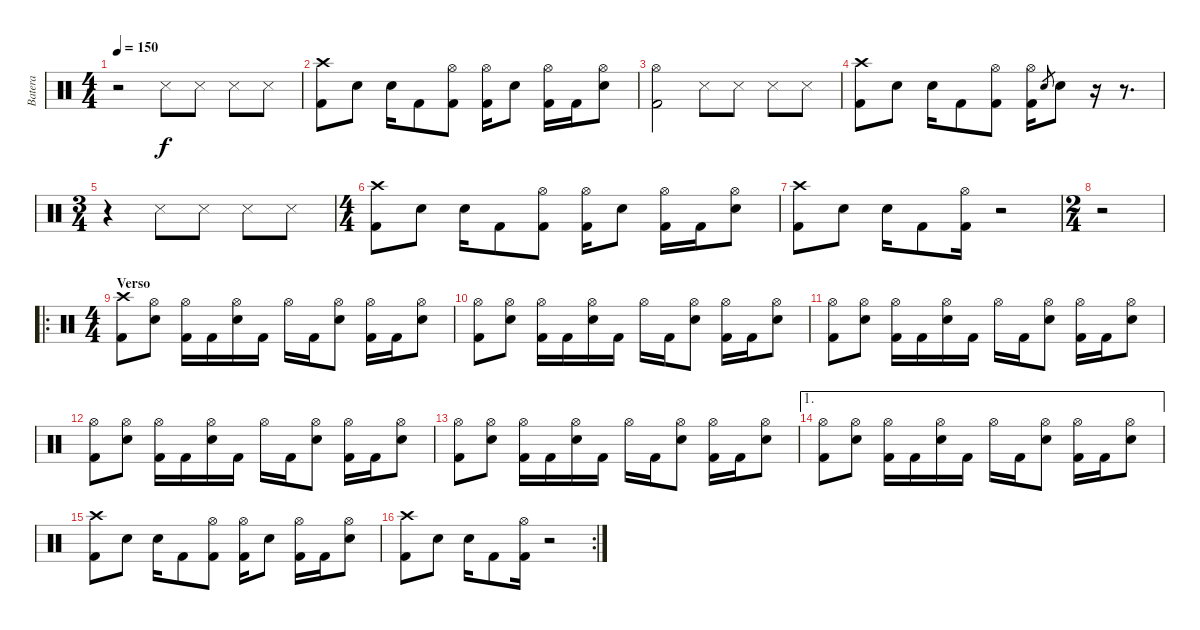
\track ("Batera" "Batera") {instrument percussion}
\staff {score}
\articulation defaults
\ts (4 4)
\tempo 150
\clef neutral
\ks c
r.2{dy f} "Snare (side stick) 3".8 "Snare (side stick) 3".8 "Snare (side stick) 3".8 "Snare (side stick) 3".8 |
("Crash high (hit)" "Kick (hit) 2").8 "Snare (hit) 2".8 "Snare (hit) 2".16 "Kick (hit) 2".8 ("Hi-Hat (open)" "Kick (hit) 2").8 ("Hi-Hat (open)" "Kick (hit) 2").16 "Snare (hit) 2".8 ("Hi-Hat (open)" "Kick (hit) 2").16 "Kick (hit) 2".16 ("Hi-Hat (open)" "Snare (hit) 2").8 |
("Hi-Hat (open)" "Kick (hit) 2").2 "Snare (side stick) 3".8 "Snare (side stick) 3".8 "Snare (side stick) 3".8 "Snare (side stick) 3".8 |
("Crash high (hit)" "Kick (hit) 2").8 "Snare (hit) 2".8 "Snare (hit) 2".16 "Kick (hit) 2".8 ("Hi-Hat (open)" "Kick (hit) 2").8 ("Hi-Hat (open)" "Kick (hit) 2").16 "Snare (hit) 2".8{gr} "Snare (hit) 2".8 r.16 r.8{d} |
\ts (3 4)
r.4 "Snare (side stick) 3".8 "Snare (side stick) 3".8 "Snare (side stick) 3".8 "Snare (side stick) 3".8 |
\ts (4 4)
("Crash high (hit)" "Kick (hit) 2").8 "Snare (hit) 2".8 "Snare (hit) 2".16 "Kick (hit) 2".8 ("Hi-Hat (open)" "Kick (hit) 2").8 ("Hi-Hat (open)" "Kick (hit) 2").16 "Snare (hit) 2".8 ("Hi-Hat (open)" "Kick (hit) 2").16 "Kick (hit) 2".16 ("Hi-Hat (open)" "Snare (hit) 2").8 |
("Crash high (hit)" "Kick (hit) 2").8 "Snare (hit) 2".8 "Snare (hit) 2".16 "Kick (hit) 2".8 ("Hi-Hat (open)" "Kick (hit) 2").16 r.2 |
\ts (2 4)
r.2 |
\ro
\ts (4 4)
\section ("" "Verso")
("Crash high (hit)" "Kick (hit) 2").8 ("Hi-Hat (open)" "Snare (hit) 2").8 ("Hi-Hat (open)" "Kick (hit) 2").16 "Kick (hit) 2".16 ("Hi-Hat (open)" "Snare (hit) 2").16 "Kick (hit) 2".16 "Hi-Hat (open)".16 "Kick (hit) 2".16 ("Hi-Hat (open)" "Snare (hit) 2").8 ("Hi-Hat (open)" "Kick (hit) 2").16 "Kick (hit) 2".16 ("Hi-Hat (open)" "Snare (hit) 2").8 |
("Hi-Hat (open)" "Kick (hit) 2").8 ("Hi-Hat (open)" "Snare (hit) 2").8 ("Hi-Hat (open)" "Kick (hit) 2").16 "Kick (hit) 2".16 ("Hi-Hat (open)" "Snare (hit) 2").16 "Kick (hit) 2".16 "Hi-Hat (open)".16 "Kick (hit) 2".16 ("Hi-Hat (open)" "Snare (hit) 2").8 ("Hi-Hat (open)" "Kick (hit) 2").16 "Kick (hit) 2".16 ("Hi-Hat (open)" "Snare (hit) 2").8 |
("Hi-Hat (open)" "Kick (hit) 2").8 ("Hi-Hat (open)" "Snare (hit) 2").8 ("Hi-Hat (open)" "Kick (hit) 2").16 "Kick (hit) 2".16 ("Hi-Hat (open)" "Snare (hit) 2").16 "Kick (hit) 2".16 "Hi-Hat (open)".16 "Kick (hit) 2".16 ("Hi-Hat (open)" "Snare (hit) 2").8 ("Hi-Hat (open)" "Kick (hit) 2").16 "Kick (hit) 2".16 ("Hi-Hat (open)" "Snare (hit) 2").8 |
("Hi-Hat (open)" "Kick (hit) 2").8 ("Hi-Hat (open)" "Snare (hit) 2").8 ("Hi-Hat (open)" "Kick (hit) 2").16 "Kick (hit) 2".16 ("Hi-Hat (open)" "Snare (hit) 2").16 "Kick (hit) 2".16 "Hi-Hat (open)".16 "Kick (hit) 2".16 ("Hi-Hat (open)" "Snare (hit) 2").8 ("Hi-Hat (open)" "Kick (hit) 2").16 "Kick (hit) 2".16 ("Hi-Hat (open)" "Snare (hit) 2").8 |
("Hi-Hat (open)" "Kick (hit) 2").8 ("Hi-Hat (open)" "Snare (hit) 2").8 ("Hi-Hat (open)" "Kick (hit) 2").16 "Kick (hit) 2".16 ("Hi-Hat (open)" "Snare (hit) 2").16 "Kick (hit) 2".16 "Hi-Hat (open)".16 "Kick (hit) 2".16 ("Hi-Hat (open)" "Snare (hit) 2").8 ("Hi-Hat (open)" "Kick (hit) 2").16 "Kick (hit) 2".16 ("Hi-Hat (open)" "Snare (hit) 2").8 |
\ae 1
("Hi-Hat (open)" "Kick (hit) 2").8 ("Hi-Hat (open)" "Snare (hit) 2").8 ("Hi-Hat (open)" "Kick (hit) 2").16 "Kick (hit) 2".16 ("Hi-Hat (open)" "Snare (hit) 2").16 "Kick (hit) 2".16 "Hi-Hat (open)".16 "Kick (hit) 2".16 ("Hi-Hat (open)" "Snare (hit) 2").8 ("Hi-Hat (open)" "Kick (hit) 2").16 "Kick (hit) 2".16 ("Hi-Hat (open)" "Snare (hit) 2").8 |
("Crash high (hit)" "Kick (hit) 2").8 "Snare (hit) 2".8 "Snare (hit) 2".16 "Kick (hit) 2".8 ("Hi-Hat (open)" "Kick (hit) 2").8 ("Hi-Hat (open)" "Kick (hit) 2").16 "Snare (hit) 2".8 ("Hi-Hat (open)" "Kick (hit) 2").16 "Kick (hit) 2".16 ("Hi-Hat (open)" "Snare (hit) 2").8 |
\rc 2
("Crash high (hit)" "Kick (hit) 2").8 "Snare (hit) 2".8 "Snare (hit) 2".16 "Kick (hit) 2".8 ("Hi-Hat (open)" "Kick (hit) 2").16 r.2
